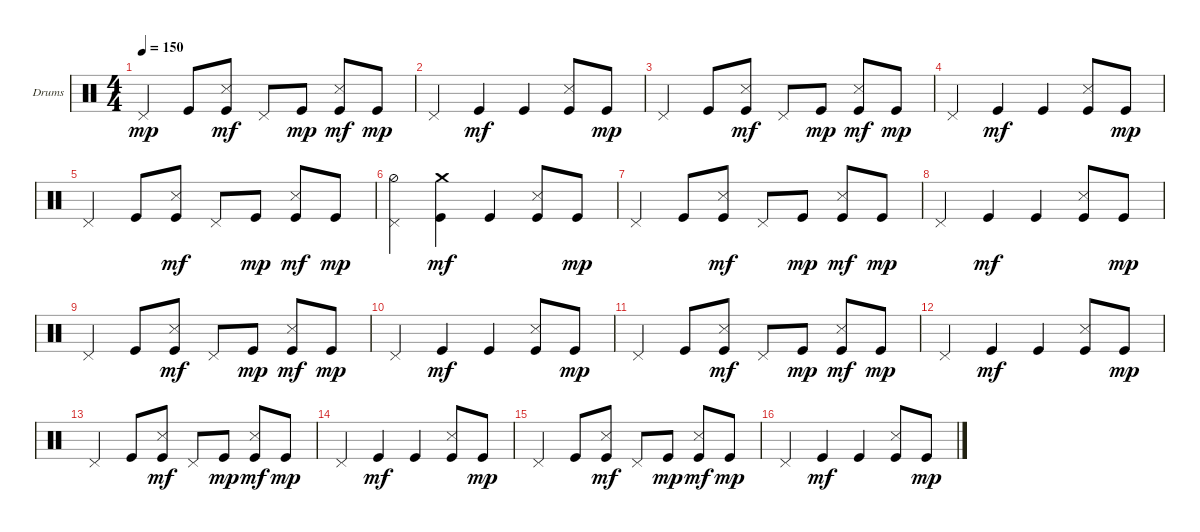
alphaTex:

\defaultSystemsLayout 4
\bracketExtendMode groupsimilarinstruments
\firstSystemTrackNameOrientation horizontal
\otherSystemsTrackNameOrientation horizontal
\track ("Е. Кулаков" "Drums") {instrument percussion}
\staff {score}
\articulation defaults
\ts (4 4)
\tempo 150
\clef neutral
\ks c "Pedal Hi-Hat (hit)".4{dy mp} "Kick (hit)".8
("Kick (hit)" "Snare (side stick) 3").8{dy mf} "Pedal Hi-Hat (hit)".8 "Kick (hit)".8{dy mp} ("Kick (hit)" "Snare (side stick) 3").8{dy mf} "Kick (hit)".8{dy mp} |
"Pedal Hi-Hat (hit)".4 "Kick (hit)".4{dy mf} "Kick (hit)".4 ("Kick (hit)" "Snare (side stick) 3").8 "Kick (hit)".8{dy mp} |
"Pedal Hi-Hat (hit)".4 "Kick (hit)".8 ("Kick (hit)" "Snare (side stick) 3").8{dy mf} "Pedal Hi-Hat (hit)".8 "Kick (hit)".8{dy mp} ("Kick (hit)" "Snare (side stick) 3").8{dy mf} "Kick (hit)".8{dy mp} |
"Pedal Hi-Hat (hit)".4 "Kick (hit)".4{dy mf} "Kick (hit)".4 ("Kick (hit)" "Snare (side stick) 3").8 "Kick (hit)".8{dy mp} |
"Pedal Hi-Hat (hit)".4 "Kick (hit)".8 ("Kick (hit)" "Snare (side stick) 3").8{dy mf} "Pedal Hi-Hat (hit)".8 "Kick (hit)".8{dy mp} ("Kick (hit)" "Snare (side stick) 3").8{dy mf} "Kick (hit)".8{dy mp} |
("Pedal Hi-Hat (hit)" "Hi-Hat (half)").4 ("Kick (hit)" "Crash medium (hit)").4{dy mf} "Kick (hit)".4 ("Kick (hit)" "Snare (side stick) 3").8 "Kick (hit)".8{dy mp} |
"Pedal Hi-Hat (hit)".4 "Kick (hit)".8 ("Kick (hit)" "Snare (side stick) 3").8{dy mf} "Pedal Hi-Hat (hit)".8 "Kick (hit)".8{dy mp} ("Kick (hit)" "Snare (side stick) 3").8{dy mf} "Kick (hit)".8{dy mp} |
"Pedal Hi-Hat (hit)".4 "Kick (hit)".4{dy mf} "Kick (hit)".4 ("Kick (hit)" "Snare (side stick) 3").8 "Kick (hit)".8{dy mp} |
"Pedal Hi-Hat (hit)".4 "Kick (hit)".8 ("Kick (hit)" "Snare (side stick) 3").8{dy mf} "Pedal Hi-Hat (hit)".8 "Kick (hit)".8{dy mp} ("Kick (hit)" "Snare (side stick) 3").8{dy mf} "Kick (hit)".8{dy mp} |
"Pedal Hi-Hat (hit)".4 "Kick (hit)".4{dy mf} "Kick (hit)".4 ("Kick (hit)" "Snare (side stick) 3").8 "Kick (hit)".8{dy mp} |
"Pedal Hi-Hat (hit)".4 "Kick (hit)".8 ("Kick (hit)" "Snare (side stick) 3").8{dy mf} "Pedal Hi-Hat (hit)".8 "Kick (hit)".8{dy mp} ("Kick (hit)" "Snare (side stick) 3").8{dy mf} "Kick (hit)".8{dy mp} |
"Pedal Hi-Hat (hit)".4 "Kick (hit)".4{dy mf} "Kick (hit)".4 ("Kick (hit)" "Snare (side stick) 3").8 "Kick (hit)".8{dy mp} |
"Pedal Hi-Hat (hit)".4 "Kick (hit)".8 ("Kick (hit)" "Snare (side stick) 3").8{dy mf} "Pedal Hi-Hat (hit)".8 "Kick (hit)".8{dy mp} ("Kick (hit)" "Snare (side stick) 3").8{dy mf} "Kick (hit)".8{dy mp} |
"Pedal Hi-Hat (hit)".4 "Kick (hit)".4{dy mf} "Kick (hit)".4 ("Kick (hit)" "Snare (side stick) 3").8 "Kick (hit)".8{dy mp} |
"Pedal Hi-Hat (hit)".4 "Kick (hit)".8 ("Kick (hit)" "Snare (side stick) 3").8{dy mf} "Pedal Hi-Hat (hit)".8 "Kick (hit)".8{dy mp} ("Kick (hit)" "Snare (side stick) 3").8{dy mf} "Kick (hit)".8{dy mp} |
"Pedal Hi-Hat (hit)".4 "Kick (hit)".4{dy mf} "Kick (hit)".4 ("Kick (hit)" "Snare (side stick) 3").8 "Kick (hit)".8{dy mp}
